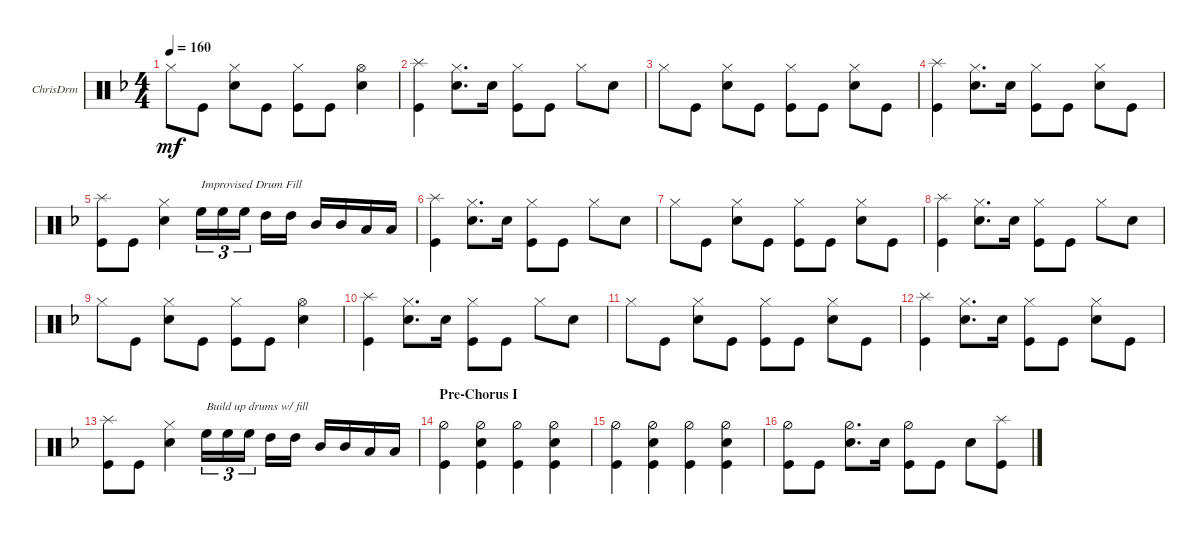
\defaultSystemsLayout 4
\bracketExtendMode groupsimilarinstruments
\firstSystemTrackNameOrientation horizontal
\otherSystemsTrackNameOrientation horizontal
\track ("Drumkit" "ChrisDrm") {instrument percussion}
\staff {score}
\articulation defaults
\ts (4 4)
\tempo 160
\clef neutral
\ks dminor "Hi-Hat (closed)".8{dy mf} "Kick (hit)".8
("Snare (hit) 2" "Hi-Hat (closed)").8 "Kick (hit)".8 ("Kick (hit)" "Hi-Hat (closed)").8 "Kick (hit)".8 ("Snare (hit) 2" "Hi-Hat (open)").4 |
("Kick (hit)" "Splash (hit)").4 ("Snare (hit) 2" "Hi-Hat (closed)").8{d} "Snare (hit) 2".16 ("Kick (hit)" "Hi-Hat (closed)").8 "Kick (hit)".8 "Hi-Hat (closed)".8 "Snare (hit) 2".8 |
"Hi-Hat (closed)".8 "Kick (hit)".8 ("Snare (hit) 2" "Hi-Hat (closed)").8 "Kick (hit)".8 ("Kick (hit)" "Hi-Hat (closed)").8 "Kick (hit)".8 ("Snare (hit) 2" "Hi-Hat (closed)").8 "Kick (hit)".8 |
("Kick (hit)" "Splash (hit)").4 ("Snare (hit) 2" "Hi-Hat (closed)").8{d} "Snare (hit) 2".16 ("Kick (hit)" "Hi-Hat (closed)").8 "Kick (hit)".8 ("Hi-Hat (closed)" "Snare (hit) 2").8 "Kick (hit)".8 |
("Kick (hit)" "Splash (hit)").8 "Kick (hit)".8 ("Snare (hit) 2" "Hi-Hat (closed)").4 "High Floor Tom (hit)".16{tu (3 2) txt "Improvised Drum Fill"} "High Floor Tom (hit)".16{tu (3 2)} "High Floor Tom (hit)".16{tu (3 2)} "High Tom (hit)".16 "High Tom (hit)".16 "Mid Tom (hit)".16 "Mid Tom (hit)".16 "Low Tom (hit)".16 "Low Tom (hit)".16 |
("Kick (hit)" "Splash (hit)").4 ("Snare (hit) 2" "Hi-Hat (closed)").8{d} "Snare (hit) 2".16 ("Kick (hit)" "Hi-Hat (closed)").8 "Kick (hit)".8 "Hi-Hat (closed)".8 "Snare (hit) 2".8 |
"Hi-Hat (closed)".8 "Kick (hit)".8 ("Snare (hit) 2" "Hi-Hat (closed)").8 "Kick (hit)".8 ("Kick (hit)" "Hi-Hat (closed)").8 "Kick (hit)".8 ("Snare (hit) 2" "Hi-Hat (closed)").8 "Kick (hit)".8 |
("Kick (hit)" "Splash (hit)").4 ("Snare (hit) 2" "Hi-Hat (closed)").8{d} "Snare (hit) 2".16 ("Kick (hit)" "Hi-Hat (closed)").8 "Kick (hit)".8 "Hi-Hat (closed)".8 "Snare (hit) 2".8 |
"Hi-Hat (closed)".8 "Kick (hit)".8 ("Snare (hit) 2" "Hi-Hat (closed)").8 "Kick (hit)".8 ("Kick (hit)" "Hi-Hat (closed)").8 "Kick (hit)".8 ("Snare (hit) 2" "Hi-Hat (open)").4 |
("Kick (hit)" "Splash (hit)").4 ("Snare (hit) 2" "Hi-Hat (closed)").8{d} "Snare (hit) 2".16 ("Kick (hit)" "Hi-Hat (closed)").8 "Kick (hit)".8 "Hi-Hat (closed)".8 "Snare (hit) 2".8 |
"Hi-Hat (closed)".8 "Kick (hit)".8 ("Snare (hit) 2" "Hi-Hat (closed)").8 "Kick (hit)".8 ("Kick (hit)" "Hi-Hat (closed)").8 "Kick (hit)".8 ("Snare (hit) 2" "Hi-Hat (closed)").8 "Kick (hit)".8 |
("Kick (hit)" "Splash (hit)").4 ("Snare (hit) 2" "Hi-Hat (closed)").8{d} "Snare (hit) 2".16 ("Kick (hit)" "Hi-Hat (closed)").8 "Kick (hit)".8 ("Hi-Hat (closed)" "Snare (hit) 2").8 "Kick (hit)".8 |
("Kick (hit)" "Splash (hit)").8 "Kick (hit)".8 ("Snare (hit) 2" "Hi-Hat (closed)").4 "High Floor Tom (hit)".16{tu (3 2) txt "Build up drums w/ fill"} "High Floor Tom (hit)".16{tu (3 2)} "High Floor Tom (hit)".16{tu (3 2)} "High Tom (hit)".16 "High Tom (hit)".16 "Mid Tom (hit)".16 "Mid Tom (hit)".16 "Low Tom (hit)".16 "Low Tom (hit)".16 |
\section ("" "Pre-Chorus I")
("Hi-Hat (half)" "Kick (hit)").4 ("Hi-Hat (half)" "Snare (hit) 2" "Kick (hit)").4 ("Hi-Hat (half)" "Kick (hit)").4 ("Hi-Hat (half)" "Snare (hit) 2" "Kick (hit)").4 |
("Hi-Hat (half)" "Kick (hit)").4 ("Hi-Hat (half)" "Kick (hit)" "Snare (hit) 2").4 ("Hi-Hat (half)" "Kick (hit)").4 ("Hi-Hat (half)" "Kick (hit)" "Snare (hit) 2").4 |
("Kick (hit)" "Hi-Hat (half)").8 "Kick (hit)".8 ("Snare (hit) 2" "Hi-Hat (half)").8{d} "Snare (hit) 2".16 ("Kick (hit)" "Hi-Hat (half)").8 "Kick (hit)".8 "Snare (hit) 2".8 ("Kick (hit)" "Splash (hit)").8
